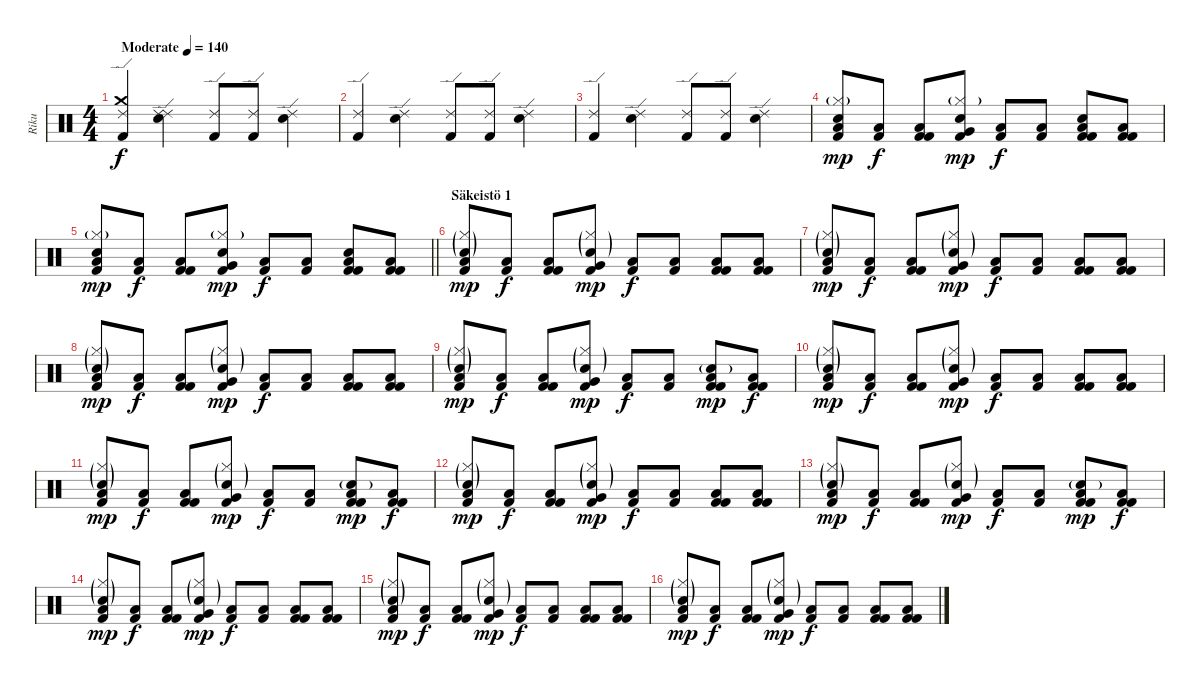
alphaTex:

\track ("Riku" "Riku") {instrument percussion}
\staff {score}
\articulation defaults
\ts (4 4)
\tempo (140 "Moderate")
\clef neutral
\ks c
("Kick (hit) 2" "Crash medium (hit)" "Ride (edge) 2").4{dy f} ("Ride (edge) 2" "Snare (hit) 2" "Ride (edge) 2").4 ("Kick (hit) 2" "Ride (edge) 2").8 ("Kick (hit) 2" "Ride (edge) 2").8 ("Snare (hit) 2" "Ride (edge) 2").4 |
("Ride (edge) 2" "Kick (hit) 2").4 ("Snare (hit) 2" "Ride (edge) 2").4 ("Kick (hit) 2" "Ride (edge) 2").8 ("Kick (hit) 2" "Ride (edge) 2").8 ("Snare (hit) 2" "Ride (edge) 2").4 |
("Ride (edge) 2" "Kick (hit) 2").4 ("Snare (hit) 2" "Ride (edge) 2").4 ("Kick (hit) 2" "Ride (edge) 2").8 ("Kick (hit) 2" "Ride (edge) 2").8 ("Snare (hit) 2" "Ride (edge) 2").4 |
("Kick (hit) 2" "Hi-Hat (closed)"{g} "Low Tom (hit)" "Electric Snare (hit)").8{dy mp} ("Kick (hit) 2" "Low Tom (hit)").8{dy f} ("Kick (hit) 2" "Low Tom (hit)" "Kick (hit) 2").8 ("Kick (hit) 2" "Hi-Hat (closed)"{g} "Very Low Tom (hit)" "Electric Snare (hit)").8{dy mp} ("Kick (hit) 2" "Low Tom (hit)").8{dy f} ("Kick (hit) 2" "Low Tom (hit)").8 ("Kick (hit) 2" "Electric Snare (hit)" "Low Tom (hit)" "Kick (hit) 2").8 ("Kick (hit) 2" "Low Tom (hit)" "Kick (hit) 2").8 |
\barLineRight lightlight
("Kick (hit) 2" "Hi-Hat (closed)"{g} "Low Tom (hit)" "Electric Snare (hit)").8{dy mp} ("Kick (hit) 2" "Low Tom (hit)").8{dy f} ("Kick (hit) 2" "Low Tom (hit)" "Kick (hit) 2").8 ("Kick (hit) 2" "Hi-Hat (closed)"{g} "Very Low Tom (hit)" "Electric Snare (hit)").8{dy mp} ("Kick (hit) 2" "Low Tom (hit)").8{dy f} ("Kick (hit) 2" "Low Tom (hit)").8 ("Kick (hit) 2" "Electric Snare (hit)" "Low Tom (hit)" "Kick (hit) 2").8 ("Kick (hit) 2" "Low Tom (hit)" "Kick (hit) 2").8 |
\section ("" "Säkeistö 1")
("Kick (hit) 2" "Hi-Hat (closed)"{g} "Low Tom (hit)" "Electric Snare (hit)"{g}).8{dy mp} ("Kick (hit) 2" "Low Tom (hit)").8{dy f} ("Kick (hit) 2" "Low Tom (hit)" "Kick (hit) 2").8 ("Kick (hit) 2" "Hi-Hat (closed)"{g} "Very Low Tom (hit)" "Electric Snare (hit)"{g}).8{dy mp} ("Kick (hit) 2" "Low Tom (hit)").8{dy f} ("Kick (hit) 2" "Low Tom (hit)").8 ("Kick (hit) 2" "Low Tom (hit)" "Kick (hit) 2").8 ("Kick (hit) 2" "Low Tom (hit)" "Kick (hit) 2").8 |
("Kick (hit) 2" "Hi-Hat (closed)"{g} "Low Tom (hit)" "Electric Snare (hit)"{g}).8{dy mp} ("Kick (hit) 2" "Low Tom (hit)").8{dy f} ("Kick (hit) 2" "Low Tom (hit)" "Kick (hit) 2").8 ("Kick (hit) 2" "Hi-Hat (closed)"{g} "Very Low Tom (hit)" "Electric Snare (hit)"{g}).8{dy mp} ("Kick (hit) 2" "Low Tom (hit)").8{dy f} ("Kick (hit) 2" "Low Tom (hit)").8 ("Kick (hit) 2" "Low Tom (hit)" "Kick (hit) 2").8 ("Kick (hit) 2" "Low Tom (hit)" "Kick (hit) 2").8 |
("Kick (hit) 2" "Hi-Hat (closed)"{g} "Low Tom (hit)" "Electric Snare (hit)"{g}).8{dy mp} ("Kick (hit) 2" "Low Tom (hit)").8{dy f} ("Kick (hit) 2" "Low Tom (hit)" "Kick (hit) 2").8 ("Kick (hit) 2" "Hi-Hat (closed)"{g} "Very Low Tom (hit)" "Electric Snare (hit)"{g}).8{dy mp} ("Kick (hit) 2" "Low Tom (hit)").8{dy f} ("Kick (hit) 2" "Low Tom (hit)").8 ("Kick (hit) 2" "Low Tom (hit)" "Kick (hit) 2").8 ("Kick (hit) 2" "Low Tom (hit)" "Kick (hit) 2").8 |
("Kick (hit) 2" "Hi-Hat (closed)"{g} "Low Tom (hit)" "Electric Snare (hit)"{g}).8{dy mp} ("Kick (hit) 2" "Low Tom (hit)").8{dy f} ("Kick (hit) 2" "Low Tom (hit)" "Kick (hit) 2").8 ("Kick (hit) 2" "Hi-Hat (closed)"{g} "Very Low Tom (hit)" "Electric Snare (hit)"{g}).8{dy mp} ("Kick (hit) 2" "Low Tom (hit)").8{dy f} ("Kick (hit) 2" "Low Tom (hit)").8 ("Kick (hit) 2" "Snare (hit) 2"{g} "Low Tom (hit)" "Kick (hit) 2").8{dy mp} ("Kick (hit) 2" "Low Tom (hit)" "Kick (hit) 2").8{dy f} |
("Kick (hit) 2" "Hi-Hat (closed)"{g} "Low Tom (hit)" "Electric Snare (hit)"{g}).8{dy mp} ("Kick (hit) 2" "Low Tom (hit)").8{dy f} ("Kick (hit) 2" "Low Tom (hit)" "Kick (hit) 2").8 ("Kick (hit) 2" "Hi-Hat (closed)"{g} "Very Low Tom (hit)" "Electric Snare (hit)"{g}).8{dy mp} ("Kick (hit) 2" "Low Tom (hit)").8{dy f} ("Kick (hit) 2" "Low Tom (hit)").8 ("Kick (hit) 2" "Low Tom (hit)" "Kick (hit) 2").8 ("Kick (hit) 2" "Low Tom (hit)" "Kick (hit) 2").8 |
("Kick (hit) 2" "Hi-Hat (closed)"{g} "Low Tom (hit)" "Electric Snare (hit)"{g}).8{dy mp} ("Kick (hit) 2" "Low Tom (hit)").8{dy f} ("Kick (hit) 2" "Low Tom (hit)" "Kick (hit) 2").8 ("Kick (hit) 2" "Hi-Hat (closed)"{g} "Very Low Tom (hit)" "Electric Snare (hit)"{g}).8{dy mp} ("Kick (hit) 2" "Low Tom (hit)").8{dy f} ("Kick (hit) 2" "Low Tom (hit)").8 ("Kick (hit) 2" "Snare (hit) 2"{g} "Low Tom (hit)" "Kick (hit) 2").8{dy mp} ("Kick (hit) 2" "Low Tom (hit)" "Kick (hit) 2").8{dy f} |
("Kick (hit) 2" "Hi-Hat (closed)"{g} "Low Tom (hit)" "Electric Snare (hit)"{g}).8{dy mp} ("Kick (hit) 2" "Low Tom (hit)").8{dy f} ("Kick (hit) 2" "Low Tom (hit)" "Kick (hit) 2").8 ("Kick (hit) 2" "Hi-Hat (closed)"{g} "Very Low Tom (hit)" "Electric Snare (hit)"{g}).8{dy mp} ("Kick (hit) 2" "Low Tom (hit)").8{dy f} ("Kick (hit) 2" "Low Tom (hit)").8 ("Kick (hit) 2" "Low Tom (hit)" "Kick (hit) 2").8 ("Kick (hit) 2" "Low Tom (hit)" "Kick (hit) 2").8 |
("Kick (hit) 2" "Hi-Hat (closed)"{g} "Low Tom (hit)" "Electric Snare (hit)"{g}).8{dy mp} ("Kick (hit) 2" "Low Tom (hit)").8{dy f} ("Kick (hit) 2" "Low Tom (hit)" "Kick (hit) 2").8 ("Kick (hit) 2" "Hi-Hat (closed)"{g} "Very Low Tom (hit)" "Electric Snare (hit)"{g}).8{dy mp} ("Kick (hit) 2" "Low Tom (hit)").8{dy f} ("Kick (hit) 2" "Low Tom (hit)").8 ("Kick (hit) 2" "Snare (hit) 2"{g} "Low Tom (hit)" "Kick (hit) 2").8{dy mp} ("Kick (hit) 2" "Low Tom (hit)" "Kick (hit) 2").8{dy f} |
("Kick (hit) 2" "Hi-Hat (closed)"{g} "Low Tom (hit)" "Electric Snare (hit)"{g}).8{dy mp} ("Kick (hit) 2" "Low Tom (hit)").8{dy f} ("Kick (hit) 2" "Low Tom (hit)" "Kick (hit) 2").8 ("Kick (hit) 2" "Hi-Hat (closed)"{g} "Very Low Tom (hit)" "Electric Snare (hit)"{g}).8{dy mp} ("Kick (hit) 2" "Low Tom (hit)").8{dy f} ("Kick (hit) 2" "Low Tom (hit)").8 ("Kick (hit) 2" "Low Tom (hit)" "Kick (hit) 2").8 ("Kick (hit) 2" "Low Tom (hit)" "Kick (hit) 2").8 |
("Kick (hit) 2" "Hi-Hat (closed)"{g} "Low Tom (hit)" "Electric Snare (hit)"{g}).8{dy mp} ("Kick (hit) 2" "Low Tom (hit)").8{dy f} ("Kick (hit) 2" "Low Tom (hit)" "Kick (hit) 2").8 ("Kick (hit) 2" "Hi-Hat (closed)"{g} "Very Low Tom (hit)" "Electric Snare (hit)"{g}).8{dy mp} ("Kick (hit) 2" "Low Tom (hit)").8{dy f} ("Kick (hit) 2" "Low Tom (hit)").8 ("Kick (hit) 2" "Low Tom (hit)" "Kick (hit) 2").8 ("Kick (hit) 2" "Low Tom (hit)" "Kick (hit) 2").8 |
("Kick (hit) 2" "Hi-Hat (closed)"{g} "Low Tom (hit)" "Electric Snare (hit)"{g}).8{dy mp} ("Kick (hit) 2" "Low Tom (hit)").8{dy f} ("Kick (hit) 2" "Low Tom (hit)" "Kick (hit) 2").8 ("Kick (hit) 2" "Hi-Hat (closed)"{g} "Very Low Tom (hit)" "Electric Snare (hit)"{g}).8{dy mp} ("Kick (hit) 2" "Low Tom (hit)").8{dy f} ("Kick (hit) 2" "Low Tom (hit)").8 ("Kick (hit) 2" "Low Tom (hit)" "Kick (hit) 2").8 ("Kick (hit) 2" "Low Tom (hit)" "Kick (hit) 2").8
